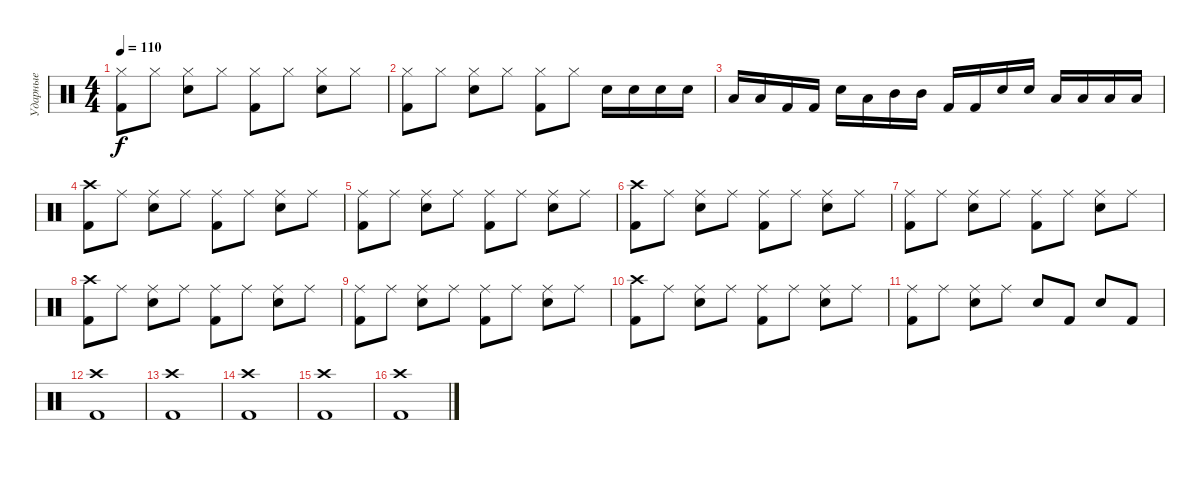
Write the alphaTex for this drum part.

\track ("Ударные" "Ударные") {instrument percussion}
\staff {score}
\articulation defaults
\ts (4 4)
\tempo 110
\clef neutral
\ks c
("Hi-Hat (closed)" "Kick (hit) 2").8{dy f} "Hi-Hat (closed)".8 ("Electric Snare (hit)" "Hi-Hat (closed)").8 "Hi-Hat (closed)".8 ("Kick (hit) 2" "Hi-Hat (closed)").8 "Hi-Hat (closed)".8 ("Electric Snare (hit)" "Hi-Hat (closed)").8 "Hi-Hat (closed)".8 |
("Hi-Hat (closed)" "Kick (hit) 2").8 "Hi-Hat (closed)".8 ("Electric Snare (hit)" "Hi-Hat (closed)").8 "Hi-Hat (closed)".8 ("Kick (hit) 2" "Hi-Hat (closed)").8 "Hi-Hat (closed)".8 "Electric Snare (hit)".16 "Electric Snare (hit)".16 "Electric Snare (hit)".16 "Electric Snare (hit)".16 |
"Low Tom (hit)".16 "Low Tom (hit)".16 "Kick (hit) 2".16 "Kick (hit) 2".16 "Electric Snare (hit)".16 "Low Tom (hit)".16 "Mid Tom (hit)".16 "Mid Tom (hit)".16 "Kick (hit) 2".16 "Kick (hit) 2".16 "Electric Snare (hit)".16 "Electric Snare (hit)".16 "Low Tom (hit)".16 "Low Tom (hit)".16 "Low Tom (hit)".16 "Low Tom (hit)".16 |
("Crash high (hit)" "Kick (hit) 2").8 "Ride (middle)".8 ("Electric Snare (hit)" "Ride (middle)").8 "Ride (middle)".8 ("Kick (hit) 2" "Ride (middle)").8 "Ride (middle)".8 ("Electric Snare (hit)" "Ride (middle)").8 "Ride (middle)".8 |
("Kick (hit) 2" "Ride (middle)").8 "Ride (middle)".8 ("Electric Snare (hit)" "Ride (middle)").8 "Ride (middle)".8 ("Kick (hit) 2" "Ride (middle)").8 "Ride (middle)".8 ("Electric Snare (hit)" "Ride (middle)").8 "Ride (middle)".8 |
("Crash high (hit)" "Kick (hit) 2").8 "Ride (middle)".8 ("Electric Snare (hit)" "Ride (middle)").8 "Ride (middle)".8 ("Kick (hit) 2" "Ride (middle)").8 "Ride (middle)".8 ("Electric Snare (hit)" "Ride (middle)").8 "Ride (middle)".8 |
("Kick (hit) 2" "Ride (middle)").8 "Ride (middle)".8 ("Electric Snare (hit)" "Ride (middle)").8 "Ride (middle)".8 ("Kick (hit) 2" "Ride (middle)").8 "Ride (middle)".8 ("Electric Snare (hit)" "Ride (middle)").8 "Ride (middle)".8 |
("Crash high (hit)" "Kick (hit) 2").8 "Ride (middle)".8 ("Electric Snare (hit)" "Ride (middle)").8 "Ride (middle)".8 ("Kick (hit) 2" "Ride (middle)").8 "Ride (middle)".8 ("Electric Snare (hit)" "Ride (middle)").8 "Ride (middle)".8 |
("Kick (hit) 2" "Ride (middle)").8 "Ride (middle)".8 ("Electric Snare (hit)" "Ride (middle)").8 "Ride (middle)".8 ("Kick (hit) 2" "Ride (middle)").8 "Ride (middle)".8 ("Electric Snare (hit)" "Ride (middle)").8 "Ride (middle)".8 |
("Crash high (hit)" "Kick (hit) 2").8 "Ride (middle)".8 ("Electric Snare (hit)" "Ride (middle)").8 "Ride (middle)".8 ("Kick (hit) 2" "Ride (middle)").8 "Ride (middle)".8 ("Electric Snare (hit)" "Ride (middle)").8 "Ride (middle)".8 |
("Kick (hit) 2" "Ride (middle)").8 "Ride (middle)".8 ("Electric Snare (hit)" "Ride (middle)").8 "Ride (middle)".8 "Electric Snare (hit)".8 "Kick (hit) 2".8 "Electric Snare (hit)".8 "Kick (hit) 2".8 |
("Crash high (hit)" "Kick (hit) 2").1 |
("Crash high (hit)" "Kick (hit) 2").1 |
("Crash high (hit)" "Kick (hit) 2").1 |
("Crash high (hit)" "Kick (hit) 2").1 |
("Crash high (hit)" "Kick (hit) 2").1
